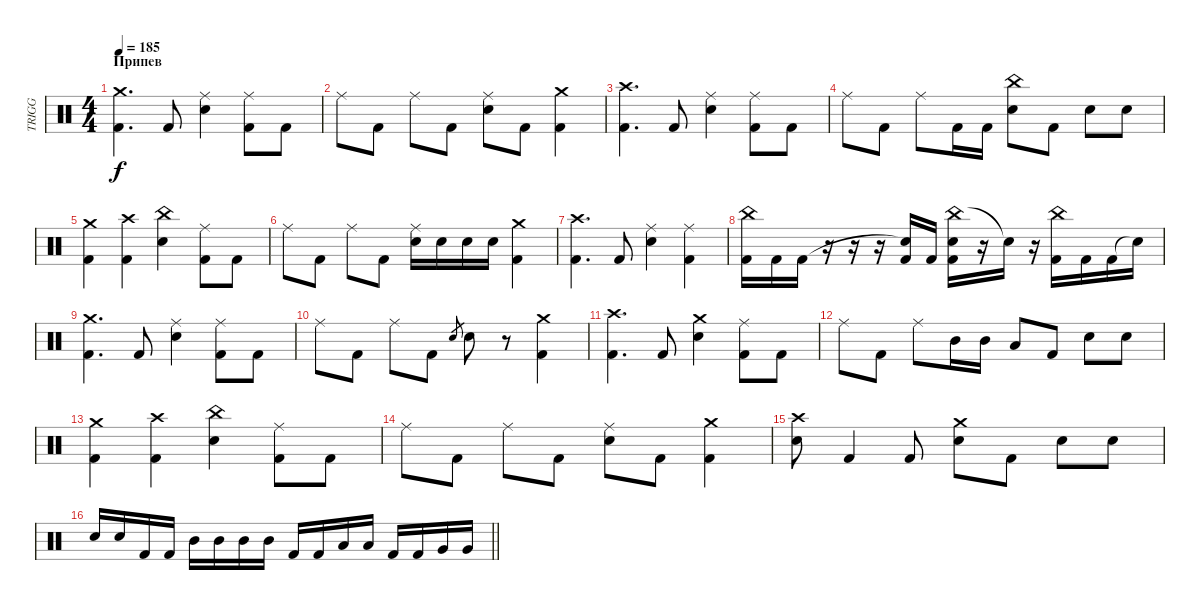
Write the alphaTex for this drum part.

\track ("TRIGG" "TRIGG") {instrument percussion}
\staff {score}
\articulation defaults
\ts (4 4)
\section ("" "Припев")
\tempo 185
\clef neutral
\ks c
("Crash medium (hit)" "Kick (hit) 2").4{d dy f} "Kick (hit) 2".8 ("Ride (middle)" "Electric Snare (hit)").4 ("Ride (middle)" "Kick (hit) 2").8 "Kick (hit) 2".8 |
"Ride (middle)".8 "Kick (hit) 2".8 "Ride (middle)".8 "Kick (hit) 2".8 ("Ride (middle)" "Electric Snare (hit)").8 "Kick (hit) 2".8 ("Crash medium (hit)" "Kick (hit) 2").4 |
("Crash high (hit)" "Kick (hit) 2").4{d} "Kick (hit) 2".8 ("Ride (middle)" "Electric Snare (hit)").4 ("Ride (middle)" "Kick (hit) 2").8 "Kick (hit) 2".8 |
"Ride (middle)".8 "Kick (hit) 2".8 "Ride (middle)".8 "Kick (hit) 2".16 "Kick (hit) 2".16 ("China (hit)" "Electric Snare (hit)").8 "Kick (hit) 2".8 "Electric Snare (hit)".8 "Electric Snare (hit)".8 |
("Crash medium (hit)" "Kick (hit) 2").4 ("Crash high (hit)" "Kick (hit) 2").4 ("China (hit)" "Electric Snare (hit)").4 ("Ride (middle)" "Kick (hit) 2").8 "Kick (hit) 2".8 |
"Ride (middle)".8 "Kick (hit) 2".8 "Ride (middle)".8 "Kick (hit) 2".8 ("Ride (middle)" "Electric Snare (hit)").16 "Electric Snare (hit)".16 "Electric Snare (hit)".16 "Electric Snare (hit)".16 ("Crash medium (hit)" "Kick (hit) 2").4 |
("Crash high (hit)" "Kick (hit) 2").4{d} "Kick (hit) 2".8 ("Ride (middle)" "Electric Snare (hit)").4 ("Ride (middle)" "Kick (hit) 2").4 |
("China (hit)" "Kick (hit) 2").16 "Kick (hit) 2".16 "Kick (hit) 2".16 r.16 r.16 r.16 ("Snare (hit)"{t} "Kick (hit) 2").16 "Kick (hit) 2".16 ("China (hit)" "Electric Snare (hit)" "Kick (hit) 2").16 r.16 "Snare (hit)"{t}.16 r.16 ("China (hit)" "Kick (hit) 2").16 "Kick (hit) 2".16 "Kick (hit) 2".16 "Snare (hit)"{t}.16 |
("Crash medium (hit)" "Kick (hit) 2").4{d} "Kick (hit) 2".8 ("Ride (middle)" "Electric Snare (hit)").4 ("Ride (middle)" "Kick (hit) 2").8 "Kick (hit) 2".8 |
"Ride (middle)".8 "Kick (hit) 2".8 "Ride (middle)".8 "Kick (hit) 2".8 "Electric Snare (hit)".8{gr} "Electric Snare (hit)".8 r.8 ("Crash medium (hit)" "Kick (hit) 2").4 |
("Crash high (hit)" "Kick (hit) 2").4{d} "Kick (hit) 2".8 ("Crash medium (hit)" "Electric Snare (hit)").4 ("Ride (middle)" "Kick (hit) 2").8 "Kick (hit) 2".8 |
"Ride (middle)".8 "Kick (hit) 2".8 "Ride (middle)".8 "Mid Tom (hit)".16 "Mid Tom (hit)".16 "Low Tom (hit)".8 "Kick (hit) 2".8 "Electric Snare (hit)".8 "Electric Snare (hit)".8 |
("Crash medium (hit)" "Kick (hit) 2").4 ("Crash high (hit)" "Kick (hit) 2").4 ("China (hit)" "Electric Snare (hit)").4 ("Ride (middle)" "Kick (hit) 2").8 "Kick (hit) 2".8 |
"Ride (middle)".8 "Kick (hit) 2".8 "Ride (middle)".8 "Kick (hit) 2".8 ("Ride (middle)" "Electric Snare (hit)").8 "Kick (hit) 2".8 ("Crash medium (hit)" "Kick (hit) 2").4 |
("Crash high (hit)" "Electric Snare (hit)").8 "Kick (hit) 2".4 "Kick (hit) 2".8 ("Crash medium (hit)" "Electric Snare (hit)").8 "Kick (hit) 2".8 "Electric Snare (hit)".8 "Electric Snare (hit)".8 |
\barLineRight lightlight "Electric Snare (hit)".16 "Electric Snare (hit)".16 "Kick (hit) 2".16 "Kick (hit) 2".16 "Mid Tom (hit)".16 "Mid Tom (hit)".16 "Mid Tom (hit)".16 "Mid Tom (hit)".16 "Kick (hit) 2".16 "Kick (hit) 2".16 "Low Tom (hit)".16 "Low Tom (hit)".16 "Kick (hit) 2".16 "Kick (hit) 2".16 "Very Low Tom (hit)".16 "Very Low Tom (hit)".16
